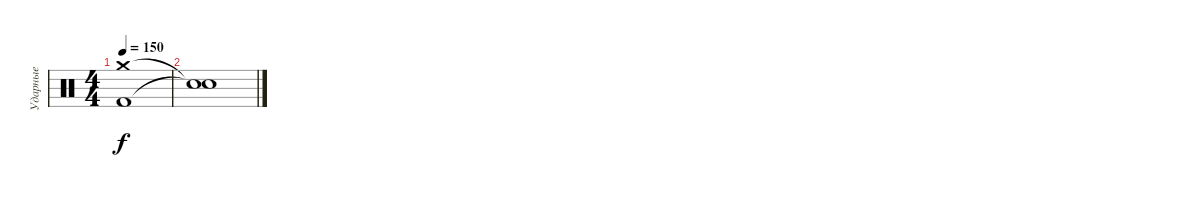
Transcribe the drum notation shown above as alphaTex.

\track ("Ударные" "Ударные") {instrument percussion}
\staff {score}
\articulation defaults
\ts (4 4)
\tempo 150
\clef neutral
\ks c
("Crash medium (hit)" "Kick (hit) 2").1{dy f} |
("Snare (hit)"{t} "Snare (hit)"{t}).1
